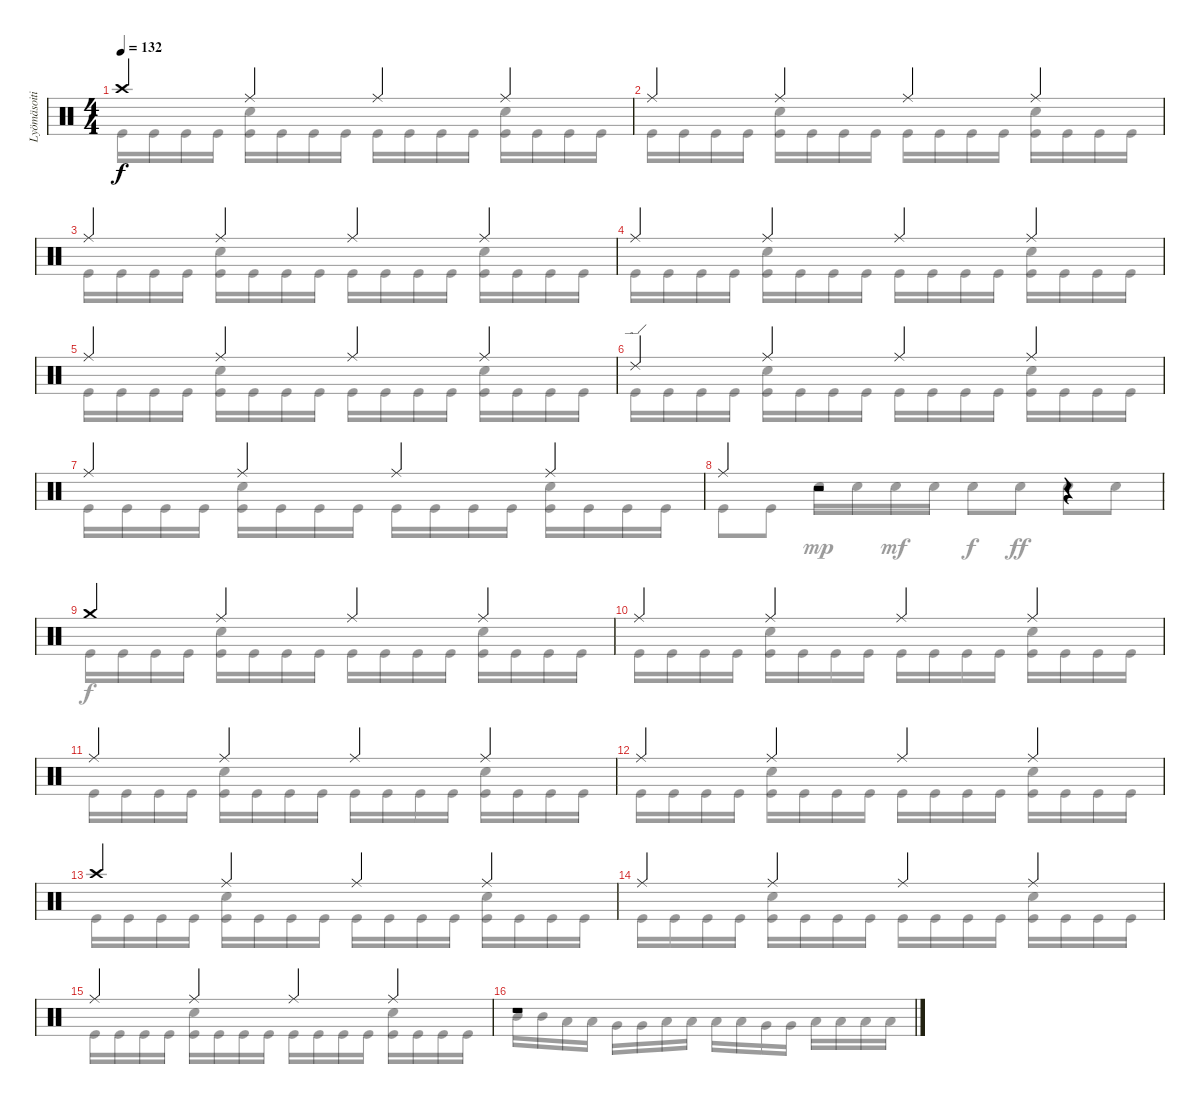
\track ("Lyömäsoitin" "Lyömäsoiti") {instrument percussion}
\staff {score}
\articulation defaults
\voice
\ts (4 4)
\tempo 132
\clef neutral
\ks c "Crash high (hit)".4{dy f} "Ride (middle)".4 "Ride (middle)".4 "Ride (middle)".4
|
"Ride (middle)".4 "Ride (middle)".4 "Ride (middle)".4 "Ride (middle)".4 |
"Ride (middle)".4 "Ride (middle)".4 "Ride (middle)".4 "Ride (middle)".4 |
"Ride (middle)".4 "Ride (middle)".4 "Ride (middle)".4 "Ride (middle)".4 |
"Ride (middle)".4 "Ride (middle)".4 "Ride (middle)".4 "Ride (middle)".4 |
"Ride (edge) 2".4 "Ride (middle)".4 "Ride (middle)".4 "Ride (middle)".4 |
"Ride (middle)".4 "Ride (middle)".4 "Ride (middle)".4 "Ride (middle)".4 |
"Ride (middle)".4 r.2 r.4 |
"Crash medium (hit)".4 "Ride (middle)".4 "Ride (middle)".4 "Ride (middle)".4 |
"Ride (middle)".4 "Ride (middle)".4 "Ride (middle)".4 "Ride (middle)".4 |
"Ride (middle)".4 "Ride (middle)".4 "Ride (middle)".4 "Ride (middle)".4 |
"Ride (middle)".4 "Ride (middle)".4 "Ride (middle)".4 "Ride (middle)".4 |
"Crash high (hit)".4 "Ride (middle)".4 "Ride (middle)".4 "Ride (middle)".4 |
"Ride (middle)".4 "Ride (middle)".4 "Ride (middle)".4 "Ride (middle)".4 |
"Ride (middle)".4 "Ride (middle)".4 "Ride (middle)".4 "Ride (middle)".4 |
r.1
\voice
\clef neutral
\ottava regular
\simile none
\ks c "Kick (hit)".16{dy f} "Kick (hit)".16 "Kick (hit)".16 "Kick (hit)".16
("Snare (hit) 2" "Kick (hit)").16 "Kick (hit)".16 "Kick (hit)".16 "Kick (hit)".16 "Kick (hit)".16 "Kick (hit)".16 "Kick (hit)".16 "Kick (hit)".16 ("Snare (hit) 2" "Kick (hit)").16 "Kick (hit)".16 "Kick (hit)".16 "Kick (hit)".16 |
"Kick (hit)".16 "Kick (hit)".16 "Kick (hit)".16 "Kick (hit)".16 ("Snare (hit) 2" "Kick (hit)").16 "Kick (hit)".16 "Kick (hit)".16 "Kick (hit)".16 "Kick (hit)".16 "Kick (hit)".16 "Kick (hit)".16 "Kick (hit)".16 ("Snare (hit) 2" "Kick (hit)").16 "Kick (hit)".16 "Kick (hit)".16 "Kick (hit)".16 |
"Kick (hit)".16 "Kick (hit)".16 "Kick (hit)".16 "Kick (hit)".16 ("Snare (hit) 2" "Kick (hit)").16 "Kick (hit)".16 "Kick (hit)".16 "Kick (hit)".16 "Kick (hit)".16 "Kick (hit)".16 "Kick (hit)".16 "Kick (hit)".16 ("Snare (hit) 2" "Kick (hit)").16 "Kick (hit)".16 "Kick (hit)".16 "Kick (hit)".16 |
"Kick (hit)".16 "Kick (hit)".16 "Kick (hit)".16 "Kick (hit)".16 ("Snare (hit) 2" "Kick (hit)").16 "Kick (hit)".16 "Kick (hit)".16 "Kick (hit)".16 "Kick (hit)".16 "Kick (hit)".16 "Kick (hit)".16 "Kick (hit)".16 ("Snare (hit) 2" "Kick (hit)").16 "Kick (hit)".16 "Kick (hit)".16 "Kick (hit)".16 |
"Kick (hit)".16 "Kick (hit)".16 "Kick (hit)".16 "Kick (hit)".16 ("Snare (hit) 2" "Kick (hit)").16 "Kick (hit)".16 "Kick (hit)".16 "Kick (hit)".16 "Kick (hit)".16 "Kick (hit)".16 "Kick (hit)".16 "Kick (hit)".16 ("Snare (hit) 2" "Kick (hit)").16 "Kick (hit)".16 "Kick (hit)".16 "Kick (hit)".16 |
"Kick (hit)".16 "Kick (hit)".16 "Kick (hit)".16 "Kick (hit)".16 ("Snare (hit) 2" "Kick (hit)").16 "Kick (hit)".16 "Kick (hit)".16 "Kick (hit)".16 "Kick (hit)".16 "Kick (hit)".16 "Kick (hit)".16 "Kick (hit)".16 ("Snare (hit) 2" "Kick (hit)").16 "Kick (hit)".16 "Kick (hit)".16 "Kick (hit)".16 |
"Kick (hit)".16 "Kick (hit)".16 "Kick (hit)".16 "Kick (hit)".16 ("Snare (hit) 2" "Kick (hit)").16 "Kick (hit)".16 "Kick (hit)".16 "Kick (hit)".16 "Kick (hit)".16 "Kick (hit)".16 "Kick (hit)".16 "Kick (hit)".16 ("Snare (hit) 2" "Kick (hit)").16 "Kick (hit)".16 "Kick (hit)".16 "Kick (hit)".16 |
"Kick (hit)".8 "Kick (hit)".8 "Snare (hit) 2".16{dy mp} "Snare (hit) 2".16 "Snare (hit) 2".16{dy mf} "Snare (hit) 2".16 "Snare (hit) 2".8{dy f} "Snare (hit) 2".8{dy ff} "Snare (hit) 2".8 "Snare (hit) 2".8 |
"Kick (hit)".16{dy f} "Kick (hit)".16 "Kick (hit)".16 "Kick (hit)".16 ("Snare (hit) 2" "Kick (hit)").16 "Kick (hit)".16 "Kick (hit)".16 "Kick (hit)".16 "Kick (hit)".16 "Kick (hit)".16 "Kick (hit)".16 "Kick (hit)".16 ("Snare (hit) 2" "Kick (hit)").16 "Kick (hit)".16 "Kick (hit)".16 "Kick (hit)".16 |
"Kick (hit)".16 "Kick (hit)".16 "Kick (hit)".16 "Kick (hit)".16 ("Snare (hit) 2" "Kick (hit)").16 "Kick (hit)".16 "Kick (hit)".16 "Kick (hit)".16 "Kick (hit)".16 "Kick (hit)".16 "Kick (hit)".16 "Kick (hit)".16 ("Snare (hit) 2" "Kick (hit)").16 "Kick (hit)".16 "Kick (hit)".16 "Kick (hit)".16 |
"Kick (hit)".16 "Kick (hit)".16 "Kick (hit)".16 "Kick (hit)".16 ("Snare (hit) 2" "Kick (hit)").16 "Kick (hit)".16 "Kick (hit)".16 "Kick (hit)".16 "Kick (hit)".16 "Kick (hit)".16 "Kick (hit)".16 "Kick (hit)".16 ("Snare (hit) 2" "Kick (hit)").16 "Kick (hit)".16 "Kick (hit)".16 "Kick (hit)".16 |
"Kick (hit)".16 "Kick (hit)".16 "Kick (hit)".16 "Kick (hit)".16 ("Snare (hit) 2" "Kick (hit)").16 "Kick (hit)".16 "Kick (hit)".16 "Kick (hit)".16 "Kick (hit)".16 "Kick (hit)".16 "Kick (hit)".16 "Kick (hit)".16 ("Snare (hit) 2" "Kick (hit)").16 "Kick (hit)".16 "Kick (hit)".16 "Kick (hit)".16 |
"Kick (hit)".16 "Kick (hit)".16 "Kick (hit)".16 "Kick (hit)".16 ("Snare (hit) 2" "Kick (hit)").16 "Kick (hit)".16 "Kick (hit)".16 "Kick (hit)".16 "Kick (hit)".16 "Kick (hit)".16 "Kick (hit)".16 "Kick (hit)".16 ("Snare (hit) 2" "Kick (hit)").16 "Kick (hit)".16 "Kick (hit)".16 "Kick (hit)".16 |
"Kick (hit)".16 "Kick (hit)".16 "Kick (hit)".16 "Kick (hit)".16 ("Snare (hit) 2" "Kick (hit)").16 "Kick (hit)".16 "Kick (hit)".16 "Kick (hit)".16 "Kick (hit)".16 "Kick (hit)".16 "Kick (hit)".16 "Kick (hit)".16 ("Snare (hit) 2" "Kick (hit)").16 "Kick (hit)".16 "Kick (hit)".16 "Kick (hit)".16 |
"Kick (hit)".16 "Kick (hit)".16 "Kick (hit)".16 "Kick (hit)".16 ("Snare (hit) 2" "Kick (hit)").16 "Kick (hit)".16 "Kick (hit)".16 "Kick (hit)".16 "Kick (hit)".16 "Kick (hit)".16 "Kick (hit)".16 "Kick (hit)".16 ("Snare (hit) 2" "Kick (hit)").16 "Kick (hit)".16 "Kick (hit)".16 "Kick (hit)".16 |
"Mid Tom (hit)".16 "Mid Tom (hit)".16 "Low Tom (hit)".16 "Low Tom (hit)".16 "Very Low Tom (hit)".16 "Very Low Tom (hit)".16 "Low Floor Tom (hit)".16 "Low Floor Tom (hit)".16 "Low Tom (hit)".16 "Low Tom (hit)".16 "Very Low Tom (hit)".16 "Very Low Tom (hit)".16 "Low Floor Tom (hit)".16 "Low Floor Tom (hit)".16 "Low Floor Tom (hit)".16 "Low Floor Tom (hit)".16
